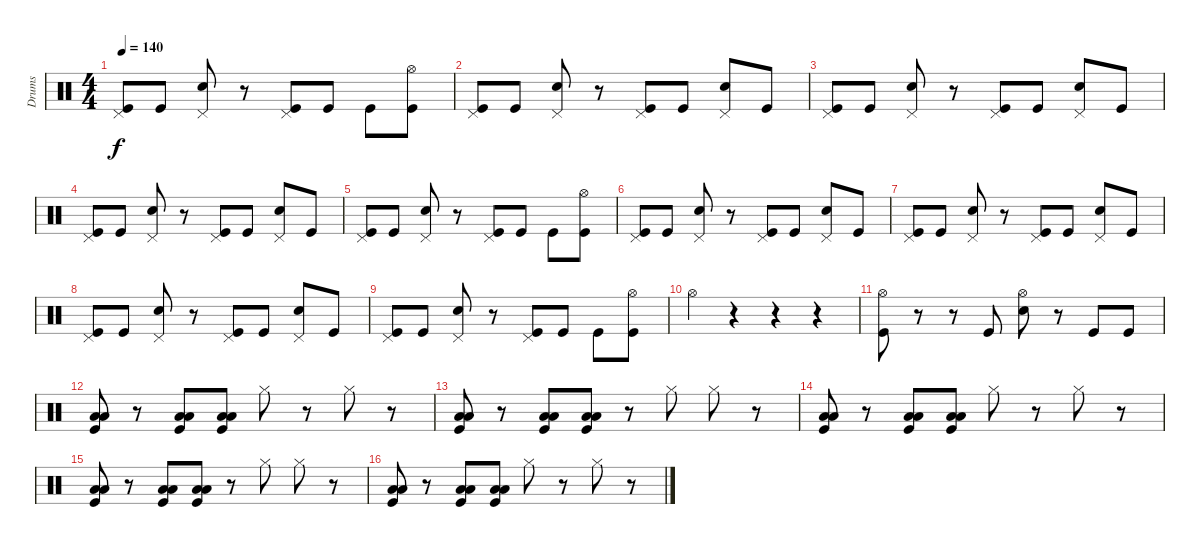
\track ("Drums" "Drums") {instrument percussion}
\staff {score}
\articulation defaults
\ts (4 4)
\tempo 140
\clef neutral
\ks c
("Pedal Hi-Hat (hit)" "Kick (hit)").8{dy f} "Kick (hit)".8 ("Pedal Hi-Hat (hit)" "Electric Snare (hit)").8 r.8 ("Pedal Hi-Hat (hit)" "Kick (hit)").8 "Kick (hit)".8 "Kick (hit)".8 ("Hi-Hat (open)" "Kick (hit)").8 |
("Pedal Hi-Hat (hit)" "Kick (hit)").8 "Kick (hit)".8 ("Pedal Hi-Hat (hit)" "Electric Snare (hit)").8 r.8 ("Pedal Hi-Hat (hit)" "Kick (hit)").8 "Kick (hit)".8 ("Pedal Hi-Hat (hit)" "Electric Snare (hit)").8 "Kick (hit)".8 |
("Pedal Hi-Hat (hit)" "Kick (hit)").8 "Kick (hit)".8 ("Pedal Hi-Hat (hit)" "Electric Snare (hit)").8 r.8 ("Pedal Hi-Hat (hit)" "Kick (hit)").8 "Kick (hit)".8 ("Pedal Hi-Hat (hit)" "Electric Snare (hit)").8 "Kick (hit)".8 |
("Pedal Hi-Hat (hit)" "Kick (hit)").8 "Kick (hit)".8 ("Pedal Hi-Hat (hit)" "Electric Snare (hit)").8 r.8 ("Pedal Hi-Hat (hit)" "Kick (hit)").8 "Kick (hit)".8 ("Pedal Hi-Hat (hit)" "Electric Snare (hit)").8 "Kick (hit)".8 |
("Pedal Hi-Hat (hit)" "Kick (hit)").8 "Kick (hit)".8 ("Pedal Hi-Hat (hit)" "Electric Snare (hit)").8 r.8 ("Pedal Hi-Hat (hit)" "Kick (hit)").8 "Kick (hit)".8 "Kick (hit)".8 ("Hi-Hat (open)" "Kick (hit)").8 |
("Pedal Hi-Hat (hit)" "Kick (hit)").8 "Kick (hit)".8 ("Pedal Hi-Hat (hit)" "Electric Snare (hit)").8 r.8 ("Pedal Hi-Hat (hit)" "Kick (hit)").8 "Kick (hit)".8 ("Pedal Hi-Hat (hit)" "Electric Snare (hit)").8 "Kick (hit)".8 |
("Pedal Hi-Hat (hit)" "Kick (hit)").8 "Kick (hit)".8 ("Pedal Hi-Hat (hit)" "Electric Snare (hit)").8 r.8 ("Pedal Hi-Hat (hit)" "Kick (hit)").8 "Kick (hit)".8 ("Pedal Hi-Hat (hit)" "Electric Snare (hit)").8 "Kick (hit)".8 |
("Pedal Hi-Hat (hit)" "Kick (hit)").8 "Kick (hit)".8 ("Pedal Hi-Hat (hit)" "Electric Snare (hit)").8 r.8 ("Pedal Hi-Hat (hit)" "Kick (hit)").8 "Kick (hit)".8 ("Pedal Hi-Hat (hit)" "Electric Snare (hit)").8 "Kick (hit)".8 |
("Pedal Hi-Hat (hit)" "Kick (hit)").8 "Kick (hit)".8 ("Pedal Hi-Hat (hit)" "Electric Snare (hit)").8 r.8 ("Pedal Hi-Hat (hit)" "Kick (hit)").8 "Kick (hit)".8 "Kick (hit)".8 ("Hi-Hat (open)" "Kick (hit)").8 |
"Hi-Hat (open)".4 r.4 r.4 r.4 |
("Hi-Hat (open)" "Kick (hit)").8 r.8 r.8 "Kick (hit)".8 ("Hi-Hat (open)" "Electric Snare (hit)").8 r.8 "Kick (hit)".8 "Kick (hit)".8 |
("Low Floor Tom (hit)" "Low Floor Tom (hit)" "Kick (hit)").8 r.8 ("Low Floor Tom (hit)" "Low Floor Tom (hit)" "Kick (hit)").8 ("Low Floor Tom (hit)" "Low Floor Tom (hit)" "Kick (hit)").8 "Hi-Hat (closed)".8 r.8 "Hi-Hat (closed)".8 r.8 |
("Low Floor Tom (hit)" "Low Floor Tom (hit)" "Kick (hit)").8 r.8 ("Low Floor Tom (hit)" "Low Floor Tom (hit)" "Kick (hit)").8 ("Low Floor Tom (hit)" "Low Floor Tom (hit)" "Kick (hit)").8 r.8 "Hi-Hat (closed)".8 "Hi-Hat (closed)".8 r.8 |
("Low Floor Tom (hit)" "Low Floor Tom (hit)" "Kick (hit)").8 r.8 ("Low Floor Tom (hit)" "Low Floor Tom (hit)" "Kick (hit)").8 ("Low Floor Tom (hit)" "Low Floor Tom (hit)" "Kick (hit)").8 "Hi-Hat (closed)".8 r.8 "Hi-Hat (closed)".8 r.8 |
("Low Floor Tom (hit)" "Low Floor Tom (hit)" "Kick (hit)").8 r.8 ("Low Floor Tom (hit)" "Low Floor Tom (hit)" "Kick (hit)").8 ("Low Floor Tom (hit)" "Low Floor Tom (hit)" "Kick (hit)").8 r.8 "Hi-Hat (closed)".8 "Hi-Hat (closed)".8 r.8 |
("Low Floor Tom (hit)" "Low Floor Tom (hit)" "Kick (hit)").8 r.8 ("Low Floor Tom (hit)" "Low Floor Tom (hit)" "Kick (hit)").8 ("Low Floor Tom (hit)" "Low Floor Tom (hit)" "Kick (hit)").8 "Hi-Hat (closed)".8 r.8 "Hi-Hat (closed)".8 r.8
